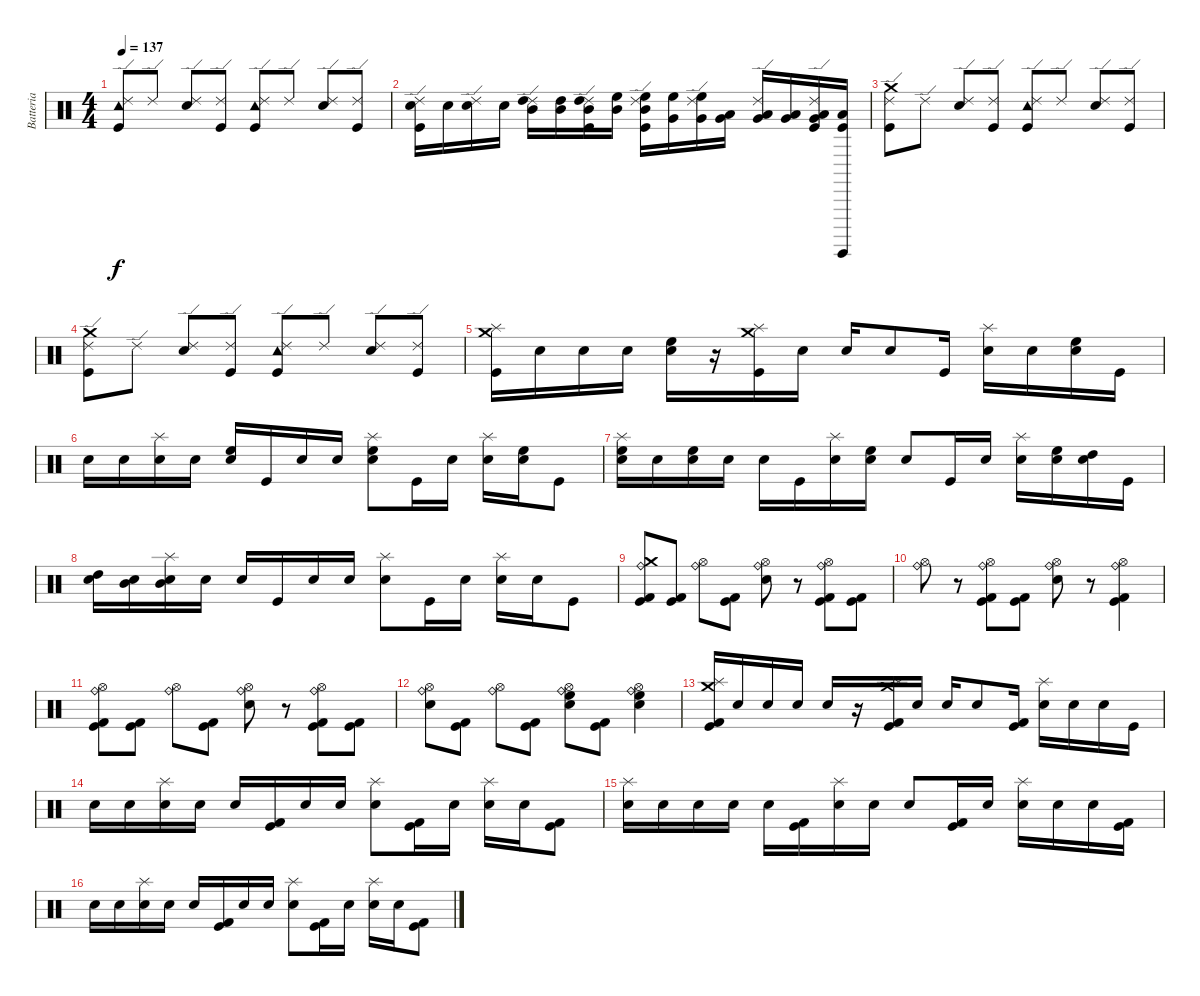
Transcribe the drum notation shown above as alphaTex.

\track ("Batteria" "Batteria") {instrument percussion}
\staff {score}
\articulation defaults
\ts (4 4)
\tempo 137
\clef neutral
\ks c
("Ride (edge) 2" "Tambourine (hit)" "Kick (hit)").8{dy f} "Ride (edge) 2".8 ("Ride (edge) 2" "Electric Snare (hit)").8 ("Ride (edge) 2" "Kick (hit)").8 ("Ride (edge) 2" "Tambourine (hit)" "Kick (hit)").8 "Ride (edge) 2".8 ("Ride (edge) 2" "Electric Snare (hit)").8 ("Ride (edge) 2" "Kick (hit)").8 |
("Ride (edge) 2" "Electric Snare (hit)" "Kick (hit)").16 "Electric Snare (hit)".16 ("Ride (edge) 2" "Electric Snare (hit)").16 "Electric Snare (hit)".16 ("Ride (edge) 2" "Mid Tom (hit)" "High Tom (hit)").16 ("Mid Tom (hit)" "High Tom (hit)").16 ("Ride (edge) 2" "Mid Tom (hit)" "High Tom (hit)" "Kick (hit)").16 ("High Floor Tom (hit)" "Mid Tom (hit)").16 ("Ride (edge) 2" "High Floor Tom (hit)" "Mid Tom (hit)" "Kick (hit)").16 ("High Floor Tom (hit)" "Very Low Tom (hit)").16 ("Ride (edge) 2" "High Floor Tom (hit)" "Very Low Tom (hit)").16 ("Very Low Tom (hit)" "Low Tom (hit)").16 ("Ride (edge) 2" "Very Low Tom (hit)" "Low Tom (hit)").16 ("Very Low Tom (hit)" "Low Floor Tom (hit)").16 ("Ride (edge) 2" "Very Low Tom (hit)" "Low Floor Tom (hit)" "Kick (hit)").16 ("Surdo (hit)" "Low Floor Tom (hit)" "Kick (hit)").16 |
("Ride (edge) 2" "Crash medium (hit)" "Kick (hit)").8 "Ride (edge) 2".8 ("Ride (edge) 2" "Electric Snare (hit)").8 ("Ride (edge) 2" "Kick (hit)").8 ("Ride (edge) 2" "Tambourine (hit)" "Kick (hit)").8 "Ride (edge) 2".8 ("Ride (edge) 2" "Electric Snare (hit)").8 ("Ride (edge) 2" "Kick (hit)").8 |
("Ride (edge) 2" "Crash medium (hit)" "Kick (hit)").8 "Ride (edge) 2".8 ("Ride (edge) 2" "Electric Snare (hit)").8 ("Ride (edge) 2" "Kick (hit)").8 ("Ride (edge) 2" "Tambourine (hit)" "Kick (hit)").8 "Ride (edge) 2".8 ("Ride (edge) 2" "Electric Snare (hit)").8 ("Ride (edge) 2" "Kick (hit)").8 |
("Splash (hit)" "Crash medium (hit)" "Kick (hit)").16 "Electric Snare (hit)".16 "Electric Snare (hit)".16 "Electric Snare (hit)".16 ("High Floor Tom (hit)" "Electric Snare (hit)").16 r.16 ("Splash (hit)" "Crash medium (hit)" "Kick (hit)").16 "Electric Snare (hit)".16 "Electric Snare (hit)".16 "Electric Snare (hit)".8 "Kick (hit)".16 ("Splash (hit)" "Electric Snare (hit)").16 "Electric Snare (hit)".16 ("High Floor Tom (hit)" "Electric Snare (hit)").16 "Kick (hit)".16 |
"Electric Snare (hit)".16 "Electric Snare (hit)".16 ("Splash (hit)" "Electric Snare (hit)").16 "Electric Snare (hit)".16 ("High Floor Tom (hit)" "Electric Snare (hit)").16 "Kick (hit)".16 "Electric Snare (hit)".16 "Electric Snare (hit)".16 ("Splash (hit)" "High Floor Tom (hit)" "Electric Snare (hit)").8 "Kick (hit)".16 "Electric Snare (hit)".16 ("Splash (hit)" "Electric Snare (hit)").16 ("High Floor Tom (hit)" "Electric Snare (hit)").16 "Kick (hit)".8 |
("Splash (hit)" "High Floor Tom (hit)" "Electric Snare (hit)").16 "Electric Snare (hit)".16 ("High Floor Tom (hit)" "Electric Snare (hit)").16 "Electric Snare (hit)".16 "Electric Snare (hit)".16 "Kick (hit)".16 ("Splash (hit)" "Electric Snare (hit)").16 ("High Floor Tom (hit)" "Electric Snare (hit)").16 "Electric Snare (hit)".8 "Kick (hit)".16 "Electric Snare (hit)".16 ("Splash (hit)" "Electric Snare (hit)").16 ("High Floor Tom (hit)" "Electric Snare (hit)").16 ("High Tom (hit)" "Electric Snare (hit)").16 "Kick (hit)".16 |
("High Tom (hit)" "Electric Snare (hit)").16 ("Mid Tom (hit)" "Electric Snare (hit)").16 ("Splash (hit)" "Mid Tom (hit)" "Electric Snare (hit)").16 "Electric Snare (hit)".16 "Electric Snare (hit)".16 "Kick (hit)".16 "Electric Snare (hit)".16 "Electric Snare (hit)".16 ("Splash (hit)" "Electric Snare (hit)").8 "Kick (hit)".16 "Electric Snare (hit)".16 ("Splash (hit)" "Electric Snare (hit)").16 "Electric Snare (hit)".16 "Kick (hit)".8 |
("Ride (bell)" "Crash medium (hit)" "Kick (hit) 2" "Kick (hit)").8 ("Kick (hit) 2" "Kick (hit)").8 ("Ride (bell)" "Hi-Hat (open)").8 ("Kick (hit) 2" "Kick (hit)").8 ("Ride (bell)" "Hi-Hat (open)" "Electric Snare (hit)").8 r.8 ("Ride (bell)" "Hi-Hat (open)" "Kick (hit) 2" "Kick (hit)").8 ("Kick (hit) 2" "Kick (hit)").8 |
("Ride (bell)" "Hi-Hat (open)").8 r.8 ("Ride (bell)" "Hi-Hat (open)" "Kick (hit) 2" "Kick (hit)").8 ("Kick (hit) 2" "Kick (hit)").8 ("Ride (bell)" "Hi-Hat (open)" "Electric Snare (hit)").8 r.8 ("Ride (bell)" "Hi-Hat (open)" "Kick (hit) 2" "Kick (hit)").4 |
("Ride (bell)" "Hi-Hat (open)" "Kick (hit) 2" "Kick (hit)").8 ("Kick (hit) 2" "Kick (hit)").8 ("Ride (bell)" "Hi-Hat (open)").8 ("Kick (hit) 2" "Kick (hit)").8 ("Ride (bell)" "Hi-Hat (open)" "Electric Snare (hit)").8 r.8 ("Ride (bell)" "Hi-Hat (open)" "Kick (hit) 2" "Kick (hit)").8 ("Kick (hit) 2" "Kick (hit)").8 |
("Ride (bell)" "Hi-Hat (open)" "Electric Snare (hit)").8 ("Kick (hit) 2" "Kick (hit)").8 ("Ride (bell)" "Hi-Hat (open)").8 ("Kick (hit) 2" "Kick (hit)").8 ("Ride (bell)" "Hi-Hat (open)" "High Floor Tom (hit)" "Electric Snare (hit)").8 ("Kick (hit) 2" "Kick (hit)").8 ("Ride (bell)" "Hi-Hat (open)" "High Floor Tom (hit)" "Electric Snare (hit)").4 |
("Splash (hit)" "Crash medium (hit)" "Kick (hit) 2" "Kick (hit)").16 "Electric Snare (hit)".16 "Electric Snare (hit)".16 "Electric Snare (hit)".16 "Electric Snare (hit)".16 r.16 ("Splash (hit)" "Crash medium (hit)" "Kick (hit) 2" "Kick (hit)").16 "Electric Snare (hit)".16 "Electric Snare (hit)".16 "Electric Snare (hit)".8 ("Kick (hit) 2" "Kick (hit)").16 ("Splash (hit)" "Electric Snare (hit)").16 "Electric Snare (hit)".16 "Electric Snare (hit)".16 "Kick (hit)".16 |
"Electric Snare (hit)".16 "Electric Snare (hit)".16 ("Splash (hit)" "Electric Snare (hit)").16 "Electric Snare (hit)".16 "Electric Snare (hit)".16 ("Kick (hit) 2" "Kick (hit)").16 "Electric Snare (hit)".16 "Electric Snare (hit)".16 ("Splash (hit)" "Electric Snare (hit)").8 ("Kick (hit) 2" "Kick (hit)").16 "Electric Snare (hit)".16 ("Splash (hit)" "Electric Snare (hit)").16 "Electric Snare (hit)".16 ("Kick (hit) 2" "Kick (hit)").8 |
("Splash (hit)" "Electric Snare (hit)").16 "Electric Snare (hit)".16 "Electric Snare (hit)".16 "Electric Snare (hit)".16 "Electric Snare (hit)".16 ("Kick (hit) 2" "Kick (hit)").16 ("Splash (hit)" "Electric Snare (hit)").16 "Electric Snare (hit)".16 "Electric Snare (hit)".8 ("Kick (hit) 2" "Kick (hit)").16 "Electric Snare (hit)".16 ("Splash (hit)" "Electric Snare (hit)").16 "Electric Snare (hit)".16 "Electric Snare (hit)".16 ("Kick (hit)" "Kick (hit) 2").16 |
"Electric Snare (hit)".16 "Electric Snare (hit)".16 ("Splash (hit)" "Electric Snare (hit)").16 "Electric Snare (hit)".16 "Electric Snare (hit)".16 ("Kick (hit) 2" "Kick (hit)").16 "Electric Snare (hit)".16 "Electric Snare (hit)".16 ("Splash (hit)" "Electric Snare (hit)").8 ("Kick (hit) 2" "Kick (hit)").16 "Electric Snare (hit)".16 ("Splash (hit)" "Electric Snare (hit)").16 "Electric Snare (hit)".16 ("Kick (hit) 2" "Kick (hit)").8
